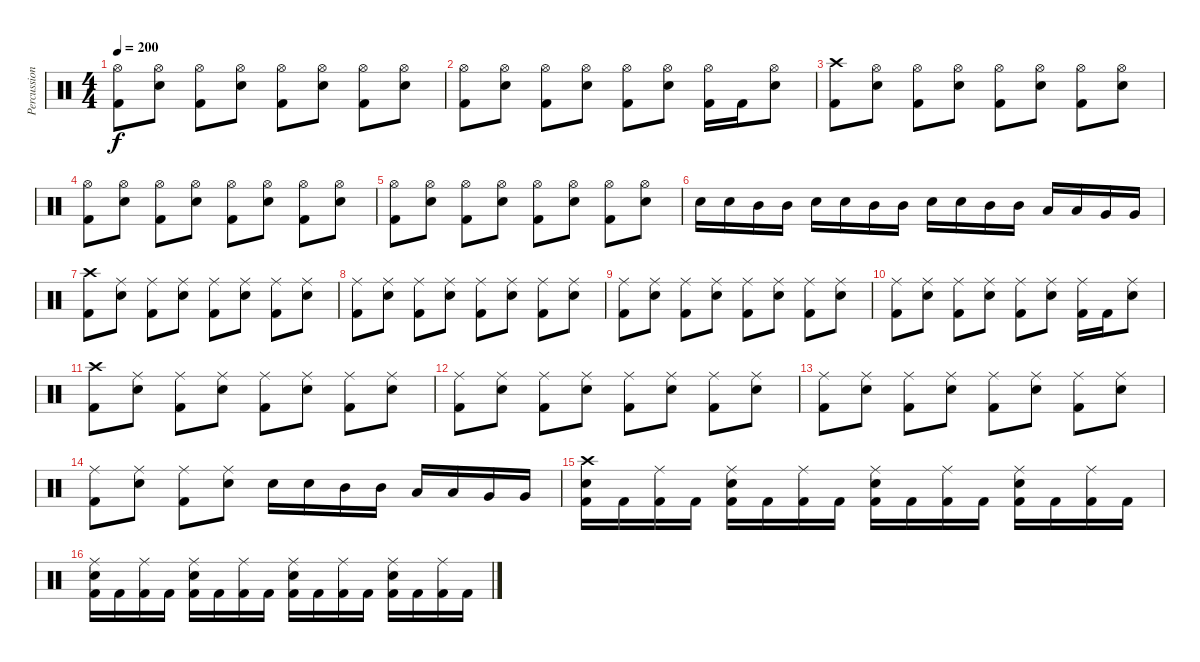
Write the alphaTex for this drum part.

\track ("Percussions" "Percussion") {instrument percussion}
\staff {score}
\articulation defaults
\ts (4 4)
\tempo 200
\clef neutral
\ks c
("Hi-Hat (open)" "Kick (hit) 2").8{dy f} ("Hi-Hat (open)" "Electric Snare (hit)").8 ("Hi-Hat (open)" "Kick (hit) 2").8 ("Hi-Hat (open)" "Electric Snare (hit)").8 ("Hi-Hat (open)" "Kick (hit) 2").8 ("Hi-Hat (open)" "Electric Snare (hit)").8 ("Hi-Hat (open)" "Kick (hit) 2").8 ("Hi-Hat (open)" "Electric Snare (hit)").8 |
("Hi-Hat (open)" "Kick (hit) 2").8 ("Hi-Hat (open)" "Electric Snare (hit)").8 ("Hi-Hat (open)" "Kick (hit) 2").8 ("Hi-Hat (open)" "Electric Snare (hit)").8 ("Hi-Hat (open)" "Kick (hit) 2").8 ("Hi-Hat (open)" "Electric Snare (hit)").8 ("Hi-Hat (open)" "Kick (hit) 2").16 "Kick (hit) 2".16 ("Hi-Hat (open)" "Electric Snare (hit)").8 |
("Crash high (hit)" "Kick (hit) 2").8 ("Hi-Hat (open)" "Electric Snare (hit)").8 ("Hi-Hat (open)" "Kick (hit) 2").8 ("Hi-Hat (open)" "Electric Snare (hit)").8 ("Hi-Hat (open)" "Kick (hit) 2").8 ("Hi-Hat (open)" "Electric Snare (hit)").8 ("Hi-Hat (open)" "Kick (hit) 2").8 ("Hi-Hat (open)" "Electric Snare (hit)").8 |
("Hi-Hat (open)" "Kick (hit) 2").8 ("Hi-Hat (open)" "Electric Snare (hit)").8 ("Hi-Hat (open)" "Kick (hit) 2").8 ("Hi-Hat (open)" "Electric Snare (hit)").8 ("Hi-Hat (open)" "Kick (hit) 2").8 ("Hi-Hat (open)" "Electric Snare (hit)").8 ("Hi-Hat (open)" "Kick (hit) 2").8 ("Hi-Hat (open)" "Electric Snare (hit)").8 |
("Hi-Hat (open)" "Kick (hit) 2").8 ("Hi-Hat (open)" "Electric Snare (hit)").8 ("Hi-Hat (open)" "Kick (hit) 2").8 ("Hi-Hat (open)" "Electric Snare (hit)").8 ("Hi-Hat (open)" "Kick (hit) 2").8 ("Hi-Hat (open)" "Electric Snare (hit)").8 ("Hi-Hat (open)" "Kick (hit) 2").8 ("Hi-Hat (open)" "Electric Snare (hit)").8 |
"Electric Snare (hit)".16 "Electric Snare (hit)".16 "Mid Tom (hit)".16 "Mid Tom (hit)".16 "Electric Snare (hit)".16 "Electric Snare (hit)".16 "Mid Tom (hit)".16 "Mid Tom (hit)".16 "Electric Snare (hit)".16 "Electric Snare (hit)".16 "Mid Tom (hit)".16 "Mid Tom (hit)".16 "Low Tom (hit)".16 "Low Tom (hit)".16 "Very Low Tom (hit)".16 "Very Low Tom (hit)".16 |
("Crash high (hit)" "Kick (hit) 2").8 ("Ride (middle)" "Electric Snare (hit)").8 ("Ride (middle)" "Kick (hit) 2").8 ("Ride (middle)" "Electric Snare (hit)").8 ("Ride (middle)" "Kick (hit) 2").8 ("Ride (middle)" "Electric Snare (hit)").8 ("Ride (middle)" "Kick (hit) 2").8 ("Ride (middle)" "Electric Snare (hit)").8 |
("Ride (middle)" "Kick (hit) 2").8 ("Ride (middle)" "Electric Snare (hit)").8 ("Ride (middle)" "Kick (hit) 2").8 ("Ride (middle)" "Electric Snare (hit)").8 ("Ride (middle)" "Kick (hit) 2").8 ("Ride (middle)" "Electric Snare (hit)").8 ("Ride (middle)" "Kick (hit) 2").8 ("Ride (middle)" "Electric Snare (hit)").8 |
("Ride (middle)" "Kick (hit) 2").8 ("Ride (middle)" "Electric Snare (hit)").8 ("Ride (middle)" "Kick (hit) 2").8 ("Ride (middle)" "Electric Snare (hit)").8 ("Ride (middle)" "Kick (hit) 2").8 ("Ride (middle)" "Electric Snare (hit)").8 ("Ride (middle)" "Kick (hit) 2").8 ("Ride (middle)" "Electric Snare (hit)").8 |
("Ride (middle)" "Kick (hit) 2").8 ("Ride (middle)" "Electric Snare (hit)").8 ("Ride (middle)" "Kick (hit) 2").8 ("Ride (middle)" "Electric Snare (hit)").8 ("Ride (middle)" "Kick (hit) 2").8 ("Ride (middle)" "Electric Snare (hit)").8 ("Ride (middle)" "Kick (hit) 2").16 "Kick (hit) 2".16 ("Ride (middle)" "Electric Snare (hit)").8 |
("Crash high (hit)" "Kick (hit) 2").8 ("Ride (middle)" "Electric Snare (hit)").8 ("Ride (middle)" "Kick (hit) 2").8 ("Ride (middle)" "Electric Snare (hit)").8 ("Ride (middle)" "Kick (hit) 2").8 ("Ride (middle)" "Electric Snare (hit)").8 ("Ride (middle)" "Kick (hit) 2").8 ("Ride (middle)" "Electric Snare (hit)").8 |
("Ride (middle)" "Kick (hit) 2").8 ("Ride (middle)" "Electric Snare (hit)").8 ("Ride (middle)" "Kick (hit) 2").8 ("Ride (middle)" "Electric Snare (hit)").8 ("Ride (middle)" "Kick (hit) 2").8 ("Ride (middle)" "Electric Snare (hit)").8 ("Ride (middle)" "Kick (hit) 2").8 ("Ride (middle)" "Electric Snare (hit)").8 |
("Ride (middle)" "Kick (hit) 2").8 ("Ride (middle)" "Electric Snare (hit)").8 ("Ride (middle)" "Kick (hit) 2").8 ("Ride (middle)" "Electric Snare (hit)").8 ("Ride (middle)" "Kick (hit) 2").8 ("Ride (middle)" "Electric Snare (hit)").8 ("Ride (middle)" "Kick (hit) 2").8 ("Ride (middle)" "Electric Snare (hit)").8 |
("Ride (middle)" "Kick (hit) 2").8 ("Ride (middle)" "Electric Snare (hit)").8 ("Ride (middle)" "Kick (hit) 2").8 ("Ride (middle)" "Electric Snare (hit)").8 "Electric Snare (hit)".16 "Electric Snare (hit)".16 "Mid Tom (hit)".16 "Mid Tom (hit)".16 "Low Tom (hit)".16 "Low Tom (hit)".16 "Very Low Tom (hit)".16 "Very Low Tom (hit)".16 |
("Crash high (hit)" "Electric Snare (hit)" "Kick (hit) 2").16 "Kick (hit) 2".16 ("Ride (middle)" "Kick (hit) 2").16 "Kick (hit) 2".16 ("Ride (middle)" "Electric Snare (hit)" "Kick (hit) 2").16 "Kick (hit) 2".16 ("Ride (middle)" "Kick (hit) 2").16 "Kick (hit) 2".16 ("Ride (middle)" "Electric Snare (hit)" "Kick (hit) 2").16 "Kick (hit) 2".16 ("Ride (middle)" "Kick (hit) 2").16 "Kick (hit) 2".16 ("Ride (middle)" "Electric Snare (hit)" "Kick (hit) 2").16 "Kick (hit) 2".16 ("Ride (middle)" "Kick (hit) 2").16 "Kick (hit) 2".16 |
("Ride (middle)" "Electric Snare (hit)" "Kick (hit) 2").16 "Kick (hit) 2".16 ("Ride (middle)" "Kick (hit) 2").16 "Kick (hit) 2".16 ("Ride (middle)" "Electric Snare (hit)" "Kick (hit) 2").16 "Kick (hit) 2".16 ("Ride (middle)" "Kick (hit) 2").16 "Kick (hit) 2".16 ("Ride (middle)" "Electric Snare (hit)" "Kick (hit) 2").16 "Kick (hit) 2".16 ("Ride (middle)" "Kick (hit) 2").16 "Kick (hit) 2".16 ("Ride (middle)" "Electric Snare (hit)" "Kick (hit) 2").16 "Kick (hit) 2".16 ("Ride (middle)" "Kick (hit) 2").16 "Kick (hit) 2".16
